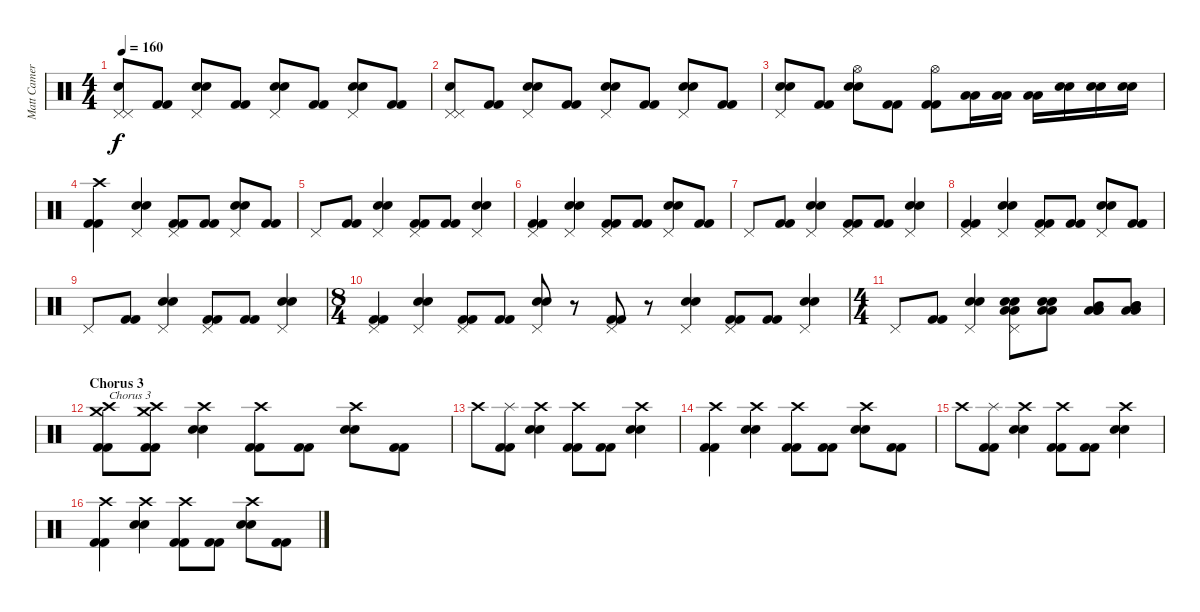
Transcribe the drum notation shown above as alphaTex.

\track ("Matt Cameron" "Matt Camer") {instrument percussion}
\staff {score}
\articulation defaults
\ts (4 4)
\tempo 160
\clef neutral
\ks c
("Electric Snare (hit)" "Pedal Hi-Hat (hit)" "Pedal Hi-Hat (hit)").8{dy f} ("Kick (hit) 2" "Kick (hit) 2").8 ("Electric Snare (hit)" "Electric Snare (hit)" "Pedal Hi-Hat (hit)").8 ("Kick (hit) 2" "Kick (hit) 2").8 ("Electric Snare (hit)" "Electric Snare (hit)" "Pedal Hi-Hat (hit)").8 ("Kick (hit) 2" "Kick (hit) 2").8 ("Electric Snare (hit)" "Electric Snare (hit)" "Pedal Hi-Hat (hit)").8 ("Kick (hit) 2" "Kick (hit) 2").8 |
("Electric Snare (hit)" "Pedal Hi-Hat (hit)" "Pedal Hi-Hat (hit)").8 ("Kick (hit) 2" "Kick (hit) 2").8 ("Electric Snare (hit)" "Electric Snare (hit)" "Pedal Hi-Hat (hit)").8 ("Kick (hit) 2" "Kick (hit) 2").8 ("Electric Snare (hit)" "Electric Snare (hit)" "Pedal Hi-Hat (hit)").8 ("Kick (hit) 2" "Kick (hit) 2").8 ("Electric Snare (hit)" "Electric Snare (hit)" "Pedal Hi-Hat (hit)").8 ("Kick (hit) 2" "Kick (hit) 2").8 |
("Electric Snare (hit)" "Electric Snare (hit)" "Pedal Hi-Hat (hit)").8 ("Kick (hit) 2" "Kick (hit) 2").8 ("Electric Snare (hit)" "Electric Snare (hit)" "Hi-Hat (open)").8 ("Kick (hit) 2" "Kick (hit) 2").8 ("Kick (hit) 2" "Kick (hit) 2" "Hi-Hat (open)").8 ("Low Tom (hit)" "Low Tom (hit)").16 ("Low Tom (hit)" "Low Tom (hit)").16 ("Low Tom (hit)" "Low Tom (hit)").16 ("Electric Snare (hit)" "Electric Snare (hit)").16 ("Electric Snare (hit)" "Electric Snare (hit)").16 ("Electric Snare (hit)" "Electric Snare (hit)").16 |
("Crash high (hit)" "Kick (hit) 2" "Kick (hit) 2").4 ("Electric Snare (hit)" "Electric Snare (hit)" "Pedal Hi-Hat (hit)").4 ("Kick (hit) 2" "Kick (hit) 2" "Pedal Hi-Hat (hit)").8 ("Kick (hit) 2" "Kick (hit) 2").8 ("Electric Snare (hit)" "Electric Snare (hit)" "Pedal Hi-Hat (hit)").8 ("Kick (hit) 2" "Kick (hit) 2").8 |
"Pedal Hi-Hat (hit)".8 ("Kick (hit) 2" "Kick (hit) 2").8 ("Electric Snare (hit)" "Electric Snare (hit)" "Pedal Hi-Hat (hit)").4 ("Kick (hit) 2" "Kick (hit) 2" "Pedal Hi-Hat (hit)").8 ("Kick (hit) 2" "Kick (hit) 2").8 ("Electric Snare (hit)" "Electric Snare (hit)" "Pedal Hi-Hat (hit)").4 |
("Kick (hit) 2" "Kick (hit) 2" "Pedal Hi-Hat (hit)").4 ("Electric Snare (hit)" "Electric Snare (hit)" "Pedal Hi-Hat (hit)").4 ("Kick (hit) 2" "Kick (hit) 2" "Pedal Hi-Hat (hit)").8 ("Kick (hit) 2" "Kick (hit) 2").8 ("Electric Snare (hit)" "Electric Snare (hit)" "Pedal Hi-Hat (hit)").8 ("Kick (hit) 2" "Kick (hit) 2").8 |
"Pedal Hi-Hat (hit)".8 ("Kick (hit) 2" "Kick (hit) 2").8 ("Electric Snare (hit)" "Electric Snare (hit)" "Pedal Hi-Hat (hit)").4 ("Kick (hit) 2" "Kick (hit) 2" "Pedal Hi-Hat (hit)").8 ("Kick (hit) 2" "Kick (hit) 2").8 ("Electric Snare (hit)" "Electric Snare (hit)" "Pedal Hi-Hat (hit)").4 |
("Kick (hit) 2" "Kick (hit) 2" "Pedal Hi-Hat (hit)").4 ("Electric Snare (hit)" "Electric Snare (hit)" "Pedal Hi-Hat (hit)").4 ("Kick (hit) 2" "Kick (hit) 2" "Pedal Hi-Hat (hit)").8 ("Kick (hit) 2" "Kick (hit) 2").8 ("Electric Snare (hit)" "Electric Snare (hit)" "Pedal Hi-Hat (hit)").8 ("Kick (hit) 2" "Kick (hit) 2").8 |
"Pedal Hi-Hat (hit)".8 ("Kick (hit) 2" "Kick (hit) 2").8 ("Electric Snare (hit)" "Electric Snare (hit)" "Pedal Hi-Hat (hit)").4 ("Kick (hit) 2" "Kick (hit) 2" "Pedal Hi-Hat (hit)").8 ("Kick (hit) 2" "Kick (hit) 2").8 ("Electric Snare (hit)" "Electric Snare (hit)" "Pedal Hi-Hat (hit)").4 |
\ts (8 4)
("Kick (hit) 2" "Kick (hit) 2" "Pedal Hi-Hat (hit)").4 ("Electric Snare (hit)" "Electric Snare (hit)" "Pedal Hi-Hat (hit)").4 ("Kick (hit) 2" "Kick (hit) 2" "Pedal Hi-Hat (hit)").8 ("Kick (hit) 2" "Kick (hit) 2").8 ("Electric Snare (hit)" "Electric Snare (hit)" "Pedal Hi-Hat (hit)").8 r.8 ("Kick (hit) 2" "Kick (hit) 2" "Pedal Hi-Hat (hit)").8 r.8 ("Electric Snare (hit)" "Electric Snare (hit)" "Pedal Hi-Hat (hit)").4 ("Kick (hit) 2" "Kick (hit) 2" "Pedal Hi-Hat (hit)").8 ("Kick (hit) 2" "Kick (hit) 2").8 ("Electric Snare (hit)" "Electric Snare (hit)" "Pedal Hi-Hat (hit)").4 |
\ts (4 4)
"Pedal Hi-Hat (hit)".8 ("Kick (hit) 2" "Kick (hit) 2").8 ("Electric Snare (hit)" "Electric Snare (hit)" "Pedal Hi-Hat (hit)").4 ("Low Tom (hit)" "Low Tom (hit)" "Electric Snare (hit)" "Electric Snare (hit)" "Pedal Hi-Hat (hit)").8 ("Low Tom (hit)" "Electric Snare (hit)" "Electric Snare (hit)" "Low Tom (hit)").8 ("Low Tom (hit)" "Low Tom (hit)" "Low Tom (hit)" "Mid Tom (hit)").8 ("Low Tom (hit)" "Low Tom (hit)" "Mid Tom (hit)" "Mid Tom (hit)").8 |
\section ("" "Chorus 3")
("Crash medium (hit)" "Kick (hit) 2" "Kick (hit) 2" "Crash high (hit)").8{txt "Chorus 3"} ("Crash high (hit)" "Kick (hit) 2" "Kick (hit) 2" "Crash medium (hit)").8 ("Electric Snare (hit)" "Electric Snare (hit)" "Crash high (hit)").4 ("Kick (hit) 2" "Kick (hit) 2" "Crash high (hit)").8 ("Kick (hit) 2" "Kick (hit) 2").8 ("Electric Snare (hit)" "Electric Snare (hit)" "Crash high (hit)").8 ("Kick (hit) 2" "Kick (hit) 2").8 |
"Crash high (hit)".8 ("Kick (hit) 2" "Kick (hit) 2" "Splash (hit)").8 ("Electric Snare (hit)" "Electric Snare (hit)" "Crash high (hit)").4 ("Kick (hit) 2" "Kick (hit) 2" "Crash high (hit)").8 ("Kick (hit) 2" "Kick (hit) 2").8 ("Electric Snare (hit)" "Electric Snare (hit)" "Crash high (hit)").4 |
("Kick (hit) 2" "Kick (hit) 2" "Crash high (hit)").4 ("Electric Snare (hit)" "Electric Snare (hit)" "Crash high (hit)").4 ("Kick (hit) 2" "Kick (hit) 2" "Crash high (hit)").8 ("Kick (hit) 2" "Kick (hit) 2").8 ("Electric Snare (hit)" "Electric Snare (hit)" "Crash high (hit)").8 ("Kick (hit) 2" "Kick (hit) 2").8 |
"Crash high (hit)".8 ("Kick (hit) 2" "Kick (hit) 2" "Splash (hit)").8 ("Electric Snare (hit)" "Electric Snare (hit)" "Crash high (hit)").4 ("Kick (hit) 2" "Kick (hit) 2" "Crash high (hit)").8 ("Kick (hit) 2" "Kick (hit) 2").8 ("Electric Snare (hit)" "Electric Snare (hit)" "Crash high (hit)").4 |
("Kick (hit) 2" "Kick (hit) 2" "Crash high (hit)").4 ("Electric Snare (hit)" "Electric Snare (hit)" "Crash high (hit)").4 ("Kick (hit) 2" "Kick (hit) 2" "Crash high (hit)").8 ("Kick (hit) 2" "Kick (hit) 2").8 ("Electric Snare (hit)" "Electric Snare (hit)" "Crash high (hit)").8 ("Kick (hit) 2" "Kick (hit) 2").8
